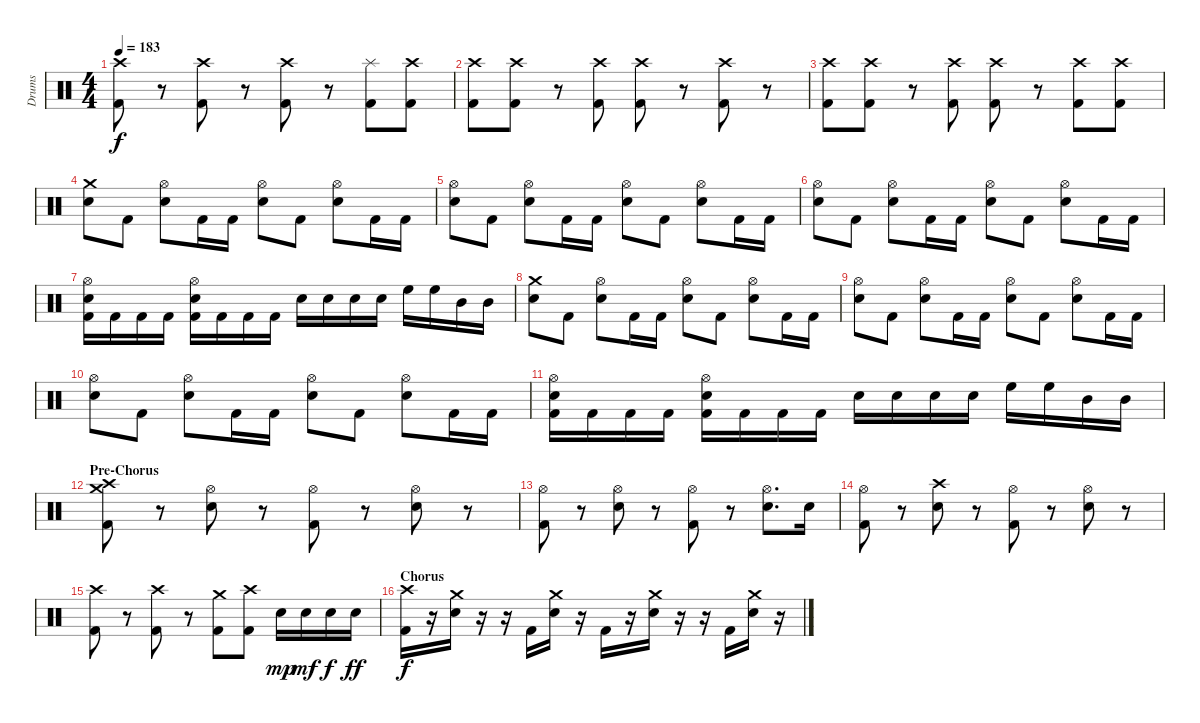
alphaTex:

\track ("Drums" "Drums") {instrument percussion}
\staff {score}
\articulation defaults
\ts (4 4)
\tempo 183
\clef neutral
\ks c
("Crash high (hit)" "Kick (hit) 2").8{dy f} r.8{volume 0} ("Crash high (hit)" "Kick (hit) 2").8{volume 16} r.8{volume 0} ("Crash high (hit)" "Kick (hit) 2").8{volume 16} r.8{volume 0} ("Splash (hit)" "Kick (hit) 2").8{volume 16} ("Crash high (hit)" "Kick (hit) 2").8 |
("Crash high (hit)" "Kick (hit) 2").8 ("Crash high (hit)" "Kick (hit) 2").8 r.8{volume 0} ("Crash high (hit)" "Kick (hit) 2").8{volume 16} ("Crash high (hit)" "Kick (hit) 2").8 r.8{volume 0} ("Crash high (hit)" "Kick (hit) 2").8{volume 16} r.8{volume 0} |
("Crash high (hit)" "Kick (hit) 2").8{volume 16} ("Crash high (hit)" "Kick (hit) 2").8 r.8{volume 0} ("Crash high (hit)" "Kick (hit) 2").8{volume 16} ("Crash high (hit)" "Kick (hit) 2").8 r.8{volume 0} ("Crash high (hit)" "Kick (hit) 2").8{volume 16} ("Crash high (hit)" "Kick (hit) 2").8 |
("Crash medium (hit)" "Electric Snare (hit)").8 "Kick (hit) 2".8 ("Hi-Hat (open)" "Electric Snare (hit)").8 "Kick (hit) 2".16 "Kick (hit) 2".16 ("Hi-Hat (open)" "Electric Snare (hit)").8 "Kick (hit) 2".8 ("Hi-Hat (open)" "Electric Snare (hit)").8 "Kick (hit) 2".16 "Kick (hit) 2".16 |
("Hi-Hat (open)" "Electric Snare (hit)").8 "Kick (hit) 2".8 ("Hi-Hat (open)" "Electric Snare (hit)").8 "Kick (hit) 2".16 "Kick (hit) 2".16 ("Hi-Hat (open)" "Electric Snare (hit)").8 "Kick (hit) 2".8 ("Hi-Hat (open)" "Electric Snare (hit)").8 "Kick (hit) 2".16 "Kick (hit) 2".16 |
("Hi-Hat (open)" "Electric Snare (hit)").8 "Kick (hit) 2".8 ("Hi-Hat (open)" "Electric Snare (hit)").8 "Kick (hit) 2".16 "Kick (hit) 2".16 ("Hi-Hat (open)" "Electric Snare (hit)").8 "Kick (hit) 2".8 ("Hi-Hat (open)" "Electric Snare (hit)").8 "Kick (hit) 2".16 "Kick (hit) 2".16 |
("Hi-Hat (open)" "Electric Snare (hit)" "Kick (hit) 2").16 "Kick (hit) 2".16 "Kick (hit) 2".16 "Kick (hit) 2".16 ("Hi-Hat (open)" "Electric Snare (hit)" "Kick (hit) 2").16 "Kick (hit) 2".16 "Kick (hit) 2".16 "Kick (hit) 2".16 "Electric Snare (hit)".16 "Electric Snare (hit)".16 "Electric Snare (hit)".16 "Electric Snare (hit)".16 "High Floor Tom (hit)".16 "High Floor Tom (hit)".16 "Mid Tom (hit)".16 "Mid Tom (hit)".16 |
("Crash medium (hit)" "Electric Snare (hit)").8 "Kick (hit) 2".8 ("Hi-Hat (open)" "Electric Snare (hit)").8 "Kick (hit) 2".16 "Kick (hit) 2".16 ("Hi-Hat (open)" "Electric Snare (hit)").8 "Kick (hit) 2".8 ("Hi-Hat (open)" "Electric Snare (hit)").8 "Kick (hit) 2".16 "Kick (hit) 2".16 |
("Hi-Hat (open)" "Electric Snare (hit)").8 "Kick (hit) 2".8 ("Hi-Hat (open)" "Electric Snare (hit)").8 "Kick (hit) 2".16 "Kick (hit) 2".16 ("Hi-Hat (open)" "Electric Snare (hit)").8 "Kick (hit) 2".8 ("Hi-Hat (open)" "Electric Snare (hit)").8 "Kick (hit) 2".16 "Kick (hit) 2".16 |
("Hi-Hat (open)" "Electric Snare (hit)").8 "Kick (hit) 2".8 ("Hi-Hat (open)" "Electric Snare (hit)").8 "Kick (hit) 2".16 "Kick (hit) 2".16 ("Hi-Hat (open)" "Electric Snare (hit)").8 "Kick (hit) 2".8 ("Hi-Hat (open)" "Electric Snare (hit)").8 "Kick (hit) 2".16 "Kick (hit) 2".16 |
("Hi-Hat (open)" "Electric Snare (hit)" "Kick (hit) 2").16 "Kick (hit) 2".16 "Kick (hit) 2".16 "Kick (hit) 2".16 ("Hi-Hat (open)" "Electric Snare (hit)" "Kick (hit) 2").16 "Kick (hit) 2".16 "Kick (hit) 2".16 "Kick (hit) 2".16 "Electric Snare (hit)".16 "Electric Snare (hit)".16 "Electric Snare (hit)".16 "Electric Snare (hit)".16 "High Floor Tom (hit)".16 "High Floor Tom (hit)".16 "Mid Tom (hit)".16 "Mid Tom (hit)".16 |
\section ("" "Pre-Chorus")
("Crash high (hit)" "Crash medium (hit)" "Kick (hit) 2").8 r.8 ("Hi-Hat (open)" "Electric Snare (hit)").8 r.8 ("Hi-Hat (open)" "Kick (hit) 2").8 r.8 ("Hi-Hat (open)" "Electric Snare (hit)").8 r.8 |
("Hi-Hat (open)" "Kick (hit) 2").8 r.8 ("Hi-Hat (open)" "Electric Snare (hit)").8 r.8 ("Hi-Hat (open)" "Kick (hit) 2").8 r.8 ("Hi-Hat (open)" "Electric Snare (hit)").8{d} "Electric Snare (hit)".16 |
("Hi-Hat (open)" "Kick (hit) 2").8 r.8 ("Crash high (hit)" "Electric Snare (hit)").8 r.8 ("Hi-Hat (open)" "Kick (hit) 2").8 r.8 ("Hi-Hat (open)" "Electric Snare (hit)").8 r.8 |
("Crash high (hit)" "Kick (hit) 2").8{volume 16} r.8{volume 0} ("Crash high (hit)" "Kick (hit) 2").8{volume 16} r.8{volume 0} ("Crash medium (hit)" "Kick (hit) 2").8{volume 16} ("Crash high (hit)" "Kick (hit) 2").8 "Electric Snare (hit)".16{dy mp} "Electric Snare (hit)".16{dy mf} "Electric Snare (hit)".16{dy f} "Electric Snare (hit)".16{dy ff} |
\section ("" "Chorus")
("Crash high (hit)" "Kick (hit) 2").16{dy f} r.16 ("Crash medium (hit)" "Electric Snare (hit)").16 r.16 r.16 "Kick (hit) 2".16 ("Crash medium (hit)" "Electric Snare (hit)").16 r.16 "Kick (hit) 2".16 r.16 ("Crash medium (hit)" "Electric Snare (hit)").16 r.16 r.16 "Kick (hit) 2".16 ("Crash medium (hit)" "Electric Snare (hit)").16 r.16
